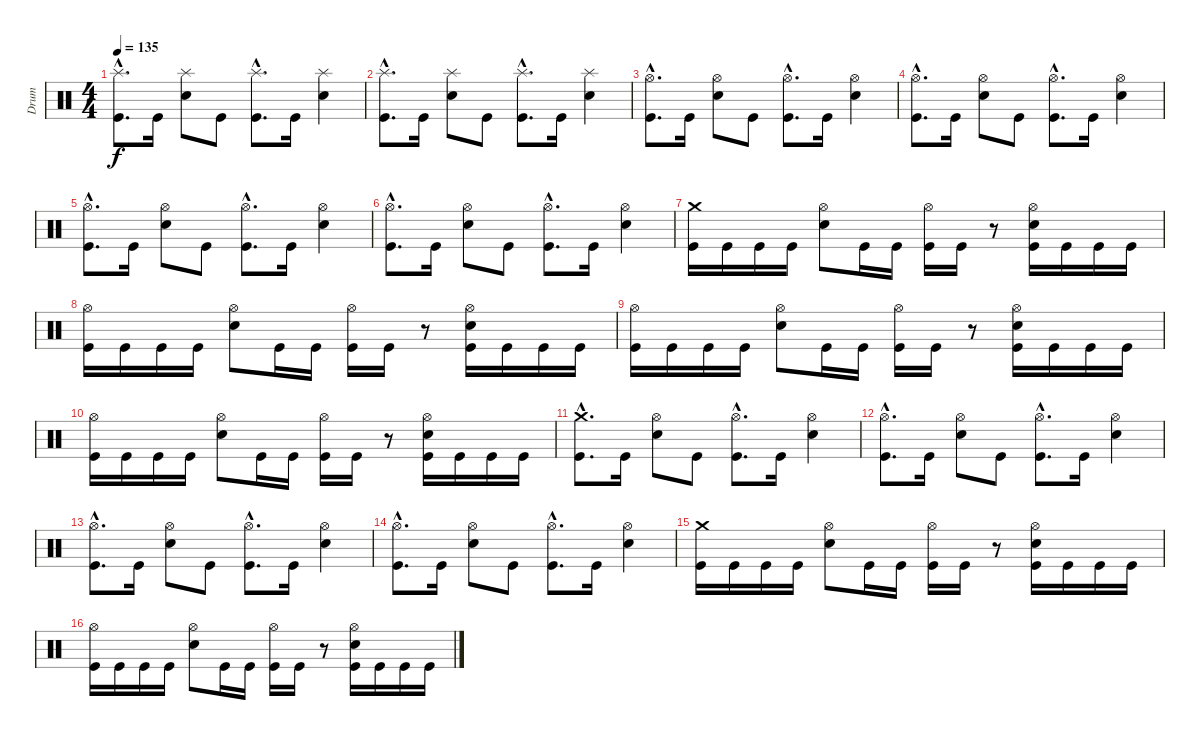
\track ("Drum" "Drum") {instrument percussion}
\staff {score}
\articulation defaults
\ts (4 4)
\tempo 135
\clef neutral
\ks c
("Kick (hit)"{hac} "Splash (hit)"{hac}).8{d dy f} "Kick (hit)".16 ("Electric Snare (hit)" "Splash (hit)").8 "Kick (hit)".8 ("Kick (hit)"{hac} "Splash (hit)"{hac}).8{d} "Kick (hit)".16 ("Electric Snare (hit)" "Splash (hit)").4 |
("Kick (hit)"{hac} "Splash (hit)"{hac}).8{d} "Kick (hit)".16 ("Electric Snare (hit)" "Splash (hit)").8 "Kick (hit)".8 ("Kick (hit)"{hac} "Splash (hit)"{hac}).8{d} "Kick (hit)".16 ("Electric Snare (hit)" "Splash (hit)").4 |
("Kick (hit)"{hac} "Hi-Hat (open)"{hac}).8{d} "Kick (hit)".16 ("Electric Snare (hit)" "Hi-Hat (open)").8 "Kick (hit)".8 ("Kick (hit)"{hac} "Hi-Hat (open)"{hac}).8{d} "Kick (hit)".16 ("Electric Snare (hit)" "Hi-Hat (open)").4 |
("Kick (hit)"{hac} "Hi-Hat (open)"{hac}).8{d} "Kick (hit)".16 ("Electric Snare (hit)" "Hi-Hat (open)").8 "Kick (hit)".8 ("Kick (hit)"{hac} "Hi-Hat (open)"{hac}).8{d} "Kick (hit)".16 ("Electric Snare (hit)" "Hi-Hat (open)").4 |
("Kick (hit)"{hac} "Hi-Hat (open)"{hac}).8{d} "Kick (hit)".16 ("Electric Snare (hit)" "Hi-Hat (open)").8 "Kick (hit)".8 ("Kick (hit)"{hac} "Hi-Hat (open)"{hac}).8{d} "Kick (hit)".16 ("Electric Snare (hit)" "Hi-Hat (open)").4 |
("Kick (hit)"{hac} "Hi-Hat (open)"{hac}).8{d} "Kick (hit)".16 ("Electric Snare (hit)" "Hi-Hat (open)").8 "Kick (hit)".8 ("Kick (hit)"{hac} "Hi-Hat (open)"{hac}).8{d} "Kick (hit)".16 ("Electric Snare (hit)" "Hi-Hat (open)").4 |
("Kick (hit)" "Crash medium (hit)").16 "Kick (hit)".16 "Kick (hit)".16 "Kick (hit)".16 ("Electric Snare (hit)" "Hi-Hat (open)").8 "Kick (hit)".16 "Kick (hit)".16 ("Kick (hit)" "Hi-Hat (open)").16 "Kick (hit)".16 r.8 ("Kick (hit)" "Electric Snare (hit)" "Hi-Hat (open)").16 "Kick (hit)".16 "Kick (hit)".16 "Kick (hit)".16 |
("Kick (hit)" "Hi-Hat (open)").16 "Kick (hit)".16 "Kick (hit)".16 "Kick (hit)".16 ("Electric Snare (hit)" "Hi-Hat (open)").8 "Kick (hit)".16 "Kick (hit)".16 ("Kick (hit)" "Hi-Hat (open)").16 "Kick (hit)".16 r.8 ("Kick (hit)" "Electric Snare (hit)" "Hi-Hat (open)").16 "Kick (hit)".16 "Kick (hit)".16 "Kick (hit)".16 |
("Kick (hit)" "Hi-Hat (open)").16 "Kick (hit)".16 "Kick (hit)".16 "Kick (hit)".16 ("Electric Snare (hit)" "Hi-Hat (open)").8 "Kick (hit)".16 "Kick (hit)".16 ("Kick (hit)" "Hi-Hat (open)").16 "Kick (hit)".16 r.8 ("Kick (hit)" "Electric Snare (hit)" "Hi-Hat (open)").16 "Kick (hit)".16 "Kick (hit)".16 "Kick (hit)".16 |
("Kick (hit)" "Hi-Hat (open)").16 "Kick (hit)".16 "Kick (hit)".16 "Kick (hit)".16 ("Electric Snare (hit)" "Hi-Hat (open)").8 "Kick (hit)".16 "Kick (hit)".16 ("Kick (hit)" "Hi-Hat (open)").16 "Kick (hit)".16 r.8 ("Kick (hit)" "Electric Snare (hit)" "Hi-Hat (open)").16 "Kick (hit)".16 "Kick (hit)".16 "Kick (hit)".16 |
("Kick (hit)"{hac} "Crash medium (hit)"{hac}).8{d} "Kick (hit)".16 ("Electric Snare (hit)" "Hi-Hat (open)").8 "Kick (hit)".8 ("Kick (hit)"{hac} "Hi-Hat (open)"{hac}).8{d} "Kick (hit)".16 ("Electric Snare (hit)" "Hi-Hat (open)").4 |
("Kick (hit)"{hac} "Hi-Hat (open)"{hac}).8{d} "Kick (hit)".16 ("Electric Snare (hit)" "Hi-Hat (open)").8 "Kick (hit)".8 ("Kick (hit)"{hac} "Hi-Hat (open)"{hac}).8{d} "Kick (hit)".16 ("Electric Snare (hit)" "Hi-Hat (open)").4 |
("Kick (hit)"{hac} "Hi-Hat (open)"{hac}).8{d} "Kick (hit)".16 ("Electric Snare (hit)" "Hi-Hat (open)").8 "Kick (hit)".8 ("Kick (hit)"{hac} "Hi-Hat (open)"{hac}).8{d} "Kick (hit)".16 ("Electric Snare (hit)" "Hi-Hat (open)").4 |
("Kick (hit)"{hac} "Hi-Hat (open)"{hac}).8{d} "Kick (hit)".16 ("Electric Snare (hit)" "Hi-Hat (open)").8 "Kick (hit)".8 ("Kick (hit)"{hac} "Hi-Hat (open)"{hac}).8{d} "Kick (hit)".16 ("Electric Snare (hit)" "Hi-Hat (open)").4 |
("Kick (hit)" "Crash medium (hit)").16 "Kick (hit)".16 "Kick (hit)".16 "Kick (hit)".16 ("Electric Snare (hit)" "Hi-Hat (open)").8 "Kick (hit)".16 "Kick (hit)".16 ("Kick (hit)" "Hi-Hat (open)").16 "Kick (hit)".16 r.8 ("Kick (hit)" "Electric Snare (hit)" "Hi-Hat (open)").16 "Kick (hit)".16 "Kick (hit)".16 "Kick (hit)".16 |
("Kick (hit)" "Hi-Hat (open)").16 "Kick (hit)".16 "Kick (hit)".16 "Kick (hit)".16 ("Electric Snare (hit)" "Hi-Hat (open)").8 "Kick (hit)".16 "Kick (hit)".16 ("Kick (hit)" "Hi-Hat (open)").16 "Kick (hit)".16 r.8 ("Kick (hit)" "Electric Snare (hit)" "Hi-Hat (open)").16 "Kick (hit)".16 "Kick (hit)".16 "Kick (hit)".16
